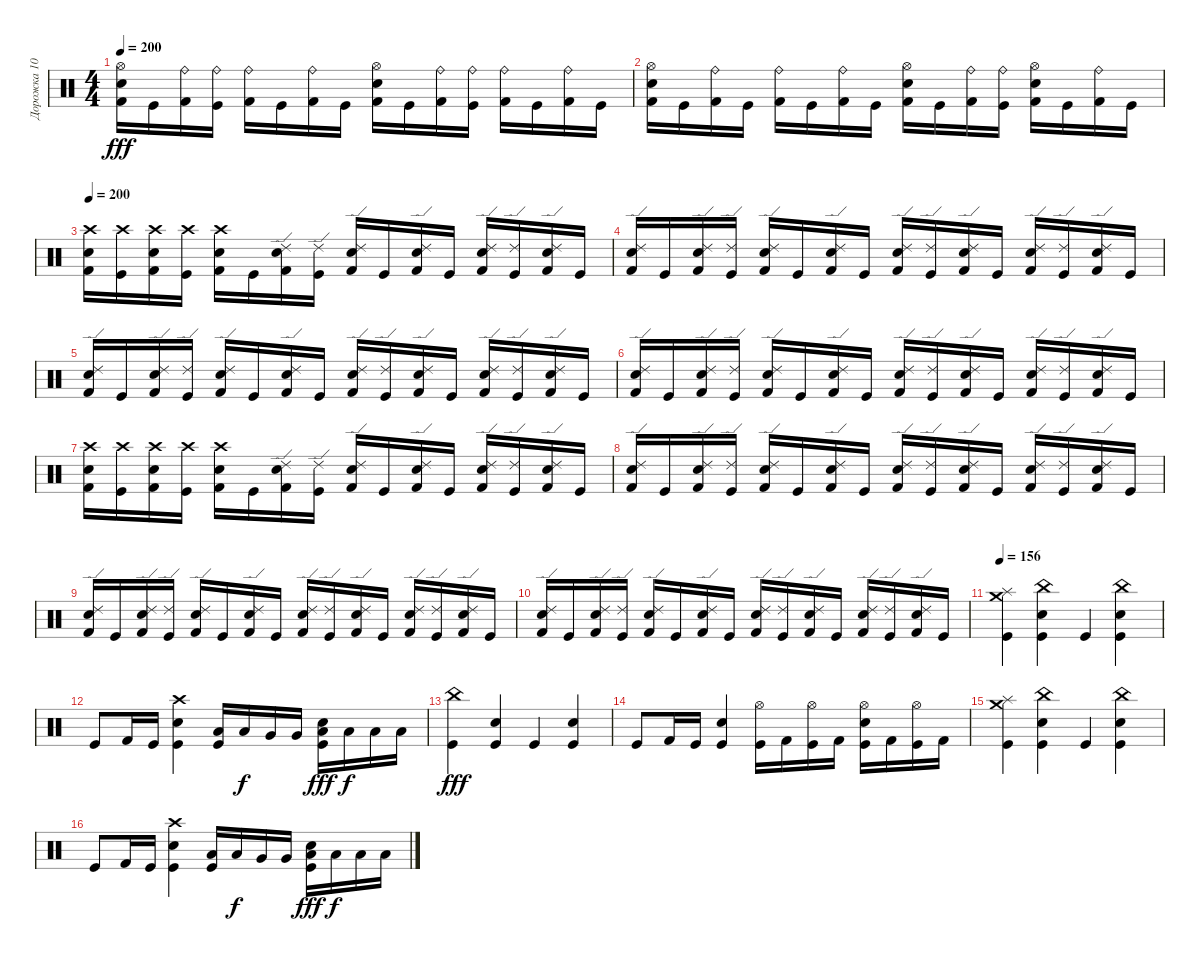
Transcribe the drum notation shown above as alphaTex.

\track ("Дорожка 10" "Дорожка 10") {instrument percussion}
\staff {score}
\articulation defaults
\ts (4 4)
\tempo 200
\clef neutral
\ks c
("Snare (hit) 2" "Kick (hit) 2" "Hi-Hat (open)").16{dy fff} "Kick (hit)".16 ("Kick (hit) 2" "Ride (bell)").16 ("Kick (hit)" "Ride (bell)").16 ("Ride (bell)" "Kick (hit) 2").16 "Kick (hit)".16 ("Ride (bell)" "Kick (hit) 2").16 "Kick (hit)".16 ("Kick (hit) 2" "Hi-Hat (open)" "Snare (hit) 2").16 "Kick (hit)".16 ("Kick (hit) 2" "Ride (bell)").16 ("Kick (hit)" "Ride (bell)").16 ("Ride (bell)" "Kick (hit) 2").16 "Kick (hit)".16 ("Ride (bell)" "Kick (hit) 2").16 "Kick (hit)".16 |
("Hi-Hat (open)" "Kick (hit) 2" "Snare (hit) 2").16 "Kick (hit)".16 ("Ride (bell)" "Kick (hit) 2").16 "Kick (hit)".16 ("Kick (hit) 2" "Ride (bell)").16 "Kick (hit)".16 ("Ride (bell)" "Kick (hit) 2").16 "Kick (hit)".16 ("Hi-Hat (open)" "Kick (hit) 2" "Snare (hit) 2").16 "Kick (hit)".16 ("Ride (bell)" "Kick (hit) 2").16 ("Ride (bell)" "Kick (hit)").16 ("Snare (hit) 2" "Kick (hit) 2" "Hi-Hat (open)").16 "Kick (hit)".16 ("Ride (bell)" "Kick (hit) 2").16 "Kick (hit)".16 |
\tempo 200
("Kick (hit) 2" "Snare (hit) 2" "Crash high (hit)").16 ("Crash high (hit)" "Kick (hit)").16 ("Kick (hit) 2" "Snare (hit) 2" "Crash high (hit)").16 ("Crash high (hit)" "Kick (hit)").16 ("Kick (hit) 2" "Snare (hit) 2" "Crash high (hit)").16 "Kick (hit)".16 ("Ride (edge) 2" "Snare (hit) 2" "Kick (hit) 2").16 ("Kick (hit)" "Ride (edge) 2").16 ("Ride (edge) 2" "Snare (hit) 2" "Kick (hit) 2").16 "Kick (hit)".16 ("Ride (edge) 2" "Kick (hit) 2" "Snare (hit) 2").16 "Kick (hit)".16 ("Kick (hit) 2" "Ride (edge) 2" "Snare (hit) 2").16 ("Ride (edge) 2" "Kick (hit)").16 ("Snare (hit) 2" "Kick (hit) 2" "Ride (edge) 2").16 "Kick (hit)".16 |
("Ride (edge) 2" "Snare (hit) 2" "Kick (hit) 2").16 "Kick (hit)".16 ("Kick (hit) 2" "Ride (edge) 2" "Snare (hit) 2").16 ("Kick (hit)" "Ride (edge) 2").16 ("Kick (hit) 2" "Ride (edge) 2" "Snare (hit) 2").16 "Kick (hit)".16 ("Snare (hit) 2" "Ride (edge) 2" "Kick (hit) 2").16 "Kick (hit)".16 ("Snare (hit) 2" "Kick (hit) 2" "Ride (edge) 2").16 ("Ride (edge) 2" "Kick (hit)").16 ("Snare (hit) 2" "Ride (edge) 2" "Kick (hit) 2").16 "Kick (hit)".16 ("Ride (edge) 2" "Snare (hit) 2" "Kick (hit) 2").16 ("Ride (edge) 2" "Kick (hit)").16 ("Kick (hit) 2" "Ride (edge) 2" "Snare (hit) 2").16 "Kick (hit)".16 |
("Kick (hit) 2" "Snare (hit) 2" "Ride (edge) 2").16 "Kick (hit)".16 ("Kick (hit) 2" "Ride (edge) 2" "Snare (hit) 2").16 ("Ride (edge) 2" "Kick (hit)").16 ("Kick (hit) 2" "Snare (hit) 2" "Ride (edge) 2").16 "Kick (hit)".16 ("Snare (hit) 2" "Kick (hit) 2" "Ride (edge) 2").16 "Kick (hit)".16 ("Kick (hit) 2" "Ride (edge) 2" "Snare (hit) 2").16 ("Kick (hit)" "Ride (edge) 2").16 ("Ride (edge) 2" "Snare (hit) 2" "Kick (hit) 2").16 "Kick (hit)".16 ("Ride (edge) 2" "Kick (hit) 2" "Snare (hit) 2").16 ("Kick (hit)" "Ride (edge) 2").16 ("Kick (hit) 2" "Ride (edge) 2" "Snare (hit) 2").16 "Kick (hit)".16 |
("Ride (edge) 2" "Kick (hit) 2" "Snare (hit) 2").16 "Kick (hit)".16 ("Ride (edge) 2" "Kick (hit) 2" "Snare (hit) 2").16 ("Ride (edge) 2" "Kick (hit)").16 ("Ride (edge) 2" "Kick (hit) 2" "Snare (hit) 2").16 "Kick (hit)".16 ("Kick (hit) 2" "Ride (edge) 2" "Snare (hit) 2").16 "Kick (hit)".16 ("Ride (edge) 2" "Snare (hit) 2" "Kick (hit) 2").16 ("Kick (hit)" "Ride (edge) 2").16 ("Ride (edge) 2" "Kick (hit) 2" "Snare (hit) 2").16 "Kick (hit)".16 ("Ride (edge) 2" "Snare (hit) 2" "Kick (hit) 2").16 ("Kick (hit)" "Ride (edge) 2").16 ("Ride (edge) 2" "Snare (hit) 2" "Kick (hit) 2").16 "Kick (hit)".16 |
("Crash high (hit)" "Kick (hit) 2" "Snare (hit) 2").16 ("Crash high (hit)" "Kick (hit)").16 ("Snare (hit) 2" "Kick (hit) 2" "Crash high (hit)").16 ("Crash high (hit)" "Kick (hit)").16 ("Crash high (hit)" "Snare (hit) 2" "Kick (hit) 2").16 "Kick (hit)".16 ("Snare (hit) 2" "Ride (edge) 2" "Kick (hit) 2").16 ("Ride (edge) 2" "Kick (hit)").16 ("Snare (hit) 2" "Kick (hit) 2" "Ride (edge) 2").16 "Kick (hit)".16 ("Kick (hit) 2" "Ride (edge) 2" "Snare (hit) 2").16 "Kick (hit)".16 ("Ride (edge) 2" "Snare (hit) 2" "Kick (hit) 2").16 ("Ride (edge) 2" "Kick (hit)").16 ("Ride (edge) 2" "Kick (hit) 2" "Snare (hit) 2").16 "Kick (hit)".16 |
("Kick (hit) 2" "Ride (edge) 2" "Snare (hit) 2").16 "Kick (hit)".16 ("Snare (hit) 2" "Kick (hit) 2" "Ride (edge) 2").16 ("Kick (hit)" "Ride (edge) 2").16 ("Ride (edge) 2" "Kick (hit) 2" "Snare (hit) 2").16 "Kick (hit)".16 ("Kick (hit) 2" "Snare (hit) 2" "Ride (edge) 2").16 "Kick (hit)".16 ("Kick (hit) 2" "Ride (edge) 2" "Snare (hit) 2").16 ("Ride (edge) 2" "Kick (hit)").16 ("Snare (hit) 2" "Ride (edge) 2" "Kick (hit) 2").16 "Kick (hit)".16 ("Kick (hit) 2" "Ride (edge) 2" "Snare (hit) 2").16 ("Kick (hit)" "Ride (edge) 2").16 ("Snare (hit) 2" "Ride (edge) 2" "Kick (hit) 2").16 "Kick (hit)".16 |
("Snare (hit) 2" "Kick (hit) 2" "Ride (edge) 2").16 "Kick (hit)".16 ("Ride (edge) 2" "Snare (hit) 2" "Kick (hit) 2").16 ("Kick (hit)" "Ride (edge) 2").16 ("Kick (hit) 2" "Ride (edge) 2" "Snare (hit) 2").16 "Kick (hit)".16 ("Snare (hit) 2" "Ride (edge) 2" "Kick (hit) 2").16 "Kick (hit)".16 ("Kick (hit) 2" "Snare (hit) 2" "Ride (edge) 2").16 ("Ride (edge) 2" "Kick (hit)").16 ("Kick (hit) 2" "Ride (edge) 2" "Snare (hit) 2").16 "Kick (hit)".16 ("Ride (edge) 2" "Kick (hit) 2" "Snare (hit) 2").16 ("Ride (edge) 2" "Kick (hit)").16 ("Kick (hit) 2" "Snare (hit) 2" "Ride (edge) 2").16 "Kick (hit)".16 |
("Ride (edge) 2" "Kick (hit) 2" "Snare (hit) 2").16 "Kick (hit)".16 ("Kick (hit) 2" "Snare (hit) 2" "Ride (edge) 2").16 ("Kick (hit)" "Ride (edge) 2").16 ("Kick (hit) 2" "Snare (hit) 2" "Ride (edge) 2").16 "Kick (hit)".16 ("Snare (hit) 2" "Kick (hit) 2" "Ride (edge) 2").16 "Kick (hit)".16 ("Ride (edge) 2" "Kick (hit) 2" "Snare (hit) 2").16 ("Kick (hit)" "Ride (edge) 2").16 ("Ride (edge) 2" "Snare (hit) 2" "Kick (hit) 2").16 "Kick (hit)".16 ("Ride (edge) 2" "Kick (hit) 2" "Snare (hit) 2").16 ("Kick (hit)" "Ride (edge) 2").16 ("Ride (edge) 2" "Kick (hit) 2" "Snare (hit) 2").16 "Kick (hit)".16 |
\tempo 156
("Splash (hit)" "Crash medium (hit)" "Kick (hit)").4 ("Snare (hit) 2" "China (hit)" "Kick (hit)").4 "Kick (hit)".4 ("China (hit)" "Kick (hit)" "Snare (hit) 2").4 |
"Kick (hit)".8 "Kick (hit) 2".16 "Kick (hit)".16 ("Crash high (hit)" "Kick (hit)" "Snare (hit) 2").4 ("Kick (hit)" "Low Tom (hit)").16 "Low Tom (hit)".16{dy f} "Very Low Tom (hit)".16 "Very Low Tom (hit)".16 ("Kick (hit)" "Snare (hit) 2" "Low Floor Tom (hit)").16{dy fff} "Low Floor Tom (hit)".16{dy f} "Low Floor Tom (hit)".16 "Low Floor Tom (hit)".16 |
("Kick (hit)" "China (hit)").4{dy fff} ("Snare (hit) 2" "Kick (hit)").4 "Kick (hit)".4 ("Snare (hit) 2" "Kick (hit)").4 |
"Kick (hit)".8 "Kick (hit) 2".16 "Kick (hit)".16 ("Snare (hit) 2" "Kick (hit)").4 ("Kick (hit)" "Hi-Hat (open)").16 "Kick (hit) 2".16 ("Kick (hit)" "Hi-Hat (open)").16 "Kick (hit) 2".16 ("Hi-Hat (open)" "Snare (hit) 2" "Kick (hit)").16 "Kick (hit) 2".16 ("Kick (hit)" "Hi-Hat (open)").16 "Kick (hit) 2".16 |
("Splash (hit)" "Crash medium (hit)" "Kick (hit)").4 ("China (hit)" "Snare (hit) 2" "Kick (hit)").4 "Kick (hit)".4 ("Kick (hit)" "China (hit)" "Snare (hit) 2").4 |
"Kick (hit)".8 "Kick (hit) 2".16 "Kick (hit)".16 ("Kick (hit)" "Crash high (hit)" "Snare (hit) 2").4 ("Low Tom (hit)" "Kick (hit)").16 "Low Tom (hit)".16{dy f} "Very Low Tom (hit)".16 "Very Low Tom (hit)".16 ("Low Floor Tom (hit)" "Snare (hit) 2" "Kick (hit)").16{dy fff} "Low Floor Tom (hit)".16{dy f} "Low Floor Tom (hit)".16 "Low Floor Tom (hit)".16
